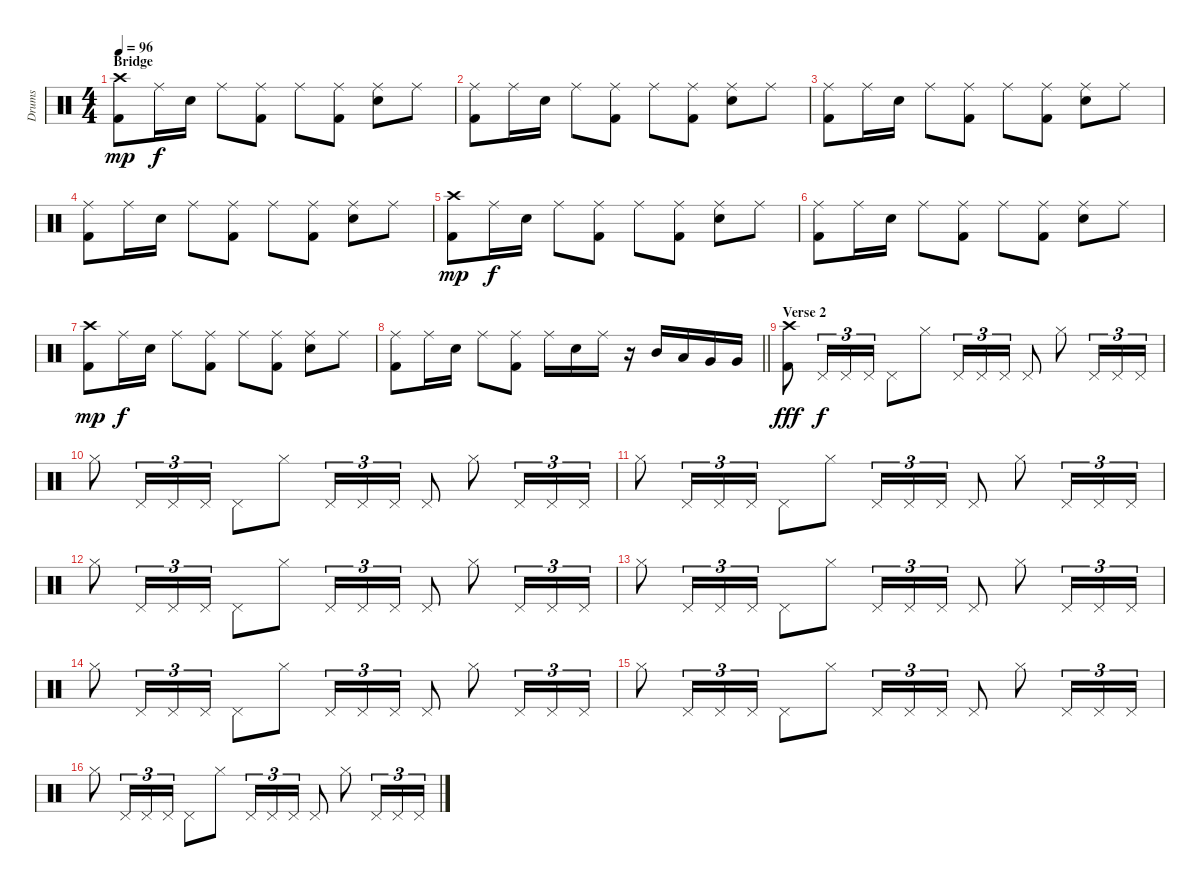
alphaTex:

\track ("Drums" "Drums") {instrument percussion}
\staff {score}
\articulation defaults
\ts (4 4)
\section ("" "Bridge")
\tempo 96
\clef neutral
\ks c
("Crash high (hit)" "Kick (hit) 2").8{dy mp} "Ride (middle)".16{dy f} "Snare (hit) 2".16 "Ride (middle)".8 ("Ride (middle)" "Kick (hit) 2").8 "Ride (middle)".8 ("Ride (middle)" "Kick (hit) 2").8 ("Ride (middle)" "Snare (hit) 2").8 "Ride (middle)".8 |
("Ride (middle)" "Kick (hit) 2").8 "Ride (middle)".16 "Snare (hit) 2".16 "Ride (middle)".8 ("Ride (middle)" "Kick (hit) 2").8 "Ride (middle)".8 ("Ride (middle)" "Kick (hit) 2").8 ("Ride (middle)" "Snare (hit) 2").8 "Ride (middle)".8 |
("Ride (middle)" "Kick (hit) 2").8 "Ride (middle)".16 "Snare (hit) 2".16 "Ride (middle)".8 ("Ride (middle)" "Kick (hit) 2").8 "Ride (middle)".8 ("Ride (middle)" "Kick (hit) 2").8 ("Ride (middle)" "Snare (hit) 2").8 "Ride (middle)".8 |
("Ride (middle)" "Kick (hit) 2").8 "Ride (middle)".16 "Snare (hit) 2".16 "Ride (middle)".8 ("Ride (middle)" "Kick (hit) 2").8 "Ride (middle)".8 ("Ride (middle)" "Kick (hit) 2").8 ("Ride (middle)" "Snare (hit) 2").8 "Ride (middle)".8 |
("Crash high (hit)" "Kick (hit) 2").8{dy mp} "Ride (middle)".16{dy f} "Snare (hit) 2".16 "Ride (middle)".8 ("Ride (middle)" "Kick (hit) 2").8 "Ride (middle)".8 ("Ride (middle)" "Kick (hit) 2").8 ("Ride (middle)" "Snare (hit) 2").8 "Ride (middle)".8 |
("Ride (middle)" "Kick (hit) 2").8 "Ride (middle)".16 "Snare (hit) 2".16 "Ride (middle)".8 ("Ride (middle)" "Kick (hit) 2").8 "Ride (middle)".8 ("Ride (middle)" "Kick (hit) 2").8 ("Ride (middle)" "Snare (hit) 2").8 "Ride (middle)".8 |
("Crash high (hit)" "Kick (hit) 2").8{dy mp} "Ride (middle)".16{dy f} "Snare (hit) 2".16 "Ride (middle)".8 ("Ride (middle)" "Kick (hit) 2").8 "Ride (middle)".8 ("Ride (middle)" "Kick (hit) 2").8 ("Ride (middle)" "Snare (hit) 2").8 "Ride (middle)".8 |
\barLineRight lightlight
("Ride (middle)" "Kick (hit) 2").8 "Ride (middle)".16 "Snare (hit) 2".16 "Ride (middle)".8 ("Ride (middle)" "Kick (hit) 2").8 "Ride (middle)".16 "Snare (hit) 2".16 "Ride (middle)".16 r.16 "Mid Tom (hit)".16 "Low Tom (hit)".16 "Very Low Tom (hit)".16 "Very Low Tom (hit)".16 |
\section ("" "Verse 2")
("Crash high (hit)" "Kick (hit) 2").8{dy fff} "Pedal Hi-Hat (hit)".16{tu (3 2) dy f} "Pedal Hi-Hat (hit)".16{tu (3 2)} "Pedal Hi-Hat (hit)".16{tu (3 2)} "Pedal Hi-Hat (hit)".8 "Hi-Hat (closed)".8 "Pedal Hi-Hat (hit)".16{tu (3 2)} "Pedal Hi-Hat (hit)".16{tu (3 2)} "Pedal Hi-Hat (hit)".16{tu (3 2)} "Pedal Hi-Hat (hit)".8 "Hi-Hat (closed)".8 "Pedal Hi-Hat (hit)".16{tu (3 2)} "Pedal Hi-Hat (hit)".16{tu (3 2)} "Pedal Hi-Hat (hit)".16{tu (3 2)} |
"Hi-Hat (closed)".8 "Pedal Hi-Hat (hit)".16{tu (3 2)} "Pedal Hi-Hat (hit)".16{tu (3 2)} "Pedal Hi-Hat (hit)".16{tu (3 2)} "Pedal Hi-Hat (hit)".8 "Hi-Hat (closed)".8 "Pedal Hi-Hat (hit)".16{tu (3 2)} "Pedal Hi-Hat (hit)".16{tu (3 2)} "Pedal Hi-Hat (hit)".16{tu (3 2)} "Pedal Hi-Hat (hit)".8 "Hi-Hat (closed)".8 "Pedal Hi-Hat (hit)".16{tu (3 2)} "Pedal Hi-Hat (hit)".16{tu (3 2)} "Pedal Hi-Hat (hit)".16{tu (3 2)} |
"Hi-Hat (closed)".8 "Pedal Hi-Hat (hit)".16{tu (3 2)} "Pedal Hi-Hat (hit)".16{tu (3 2)} "Pedal Hi-Hat (hit)".16{tu (3 2)} "Pedal Hi-Hat (hit)".8 "Hi-Hat (closed)".8 "Pedal Hi-Hat (hit)".16{tu (3 2)} "Pedal Hi-Hat (hit)".16{tu (3 2)} "Pedal Hi-Hat (hit)".16{tu (3 2)} "Pedal Hi-Hat (hit)".8 "Hi-Hat (closed)".8 "Pedal Hi-Hat (hit)".16{tu (3 2)} "Pedal Hi-Hat (hit)".16{tu (3 2)} "Pedal Hi-Hat (hit)".16{tu (3 2)} |
"Hi-Hat (closed)".8 "Pedal Hi-Hat (hit)".16{tu (3 2)} "Pedal Hi-Hat (hit)".16{tu (3 2)} "Pedal Hi-Hat (hit)".16{tu (3 2)} "Pedal Hi-Hat (hit)".8 "Hi-Hat (closed)".8 "Pedal Hi-Hat (hit)".16{tu (3 2)} "Pedal Hi-Hat (hit)".16{tu (3 2)} "Pedal Hi-Hat (hit)".16{tu (3 2)} "Pedal Hi-Hat (hit)".8 "Hi-Hat (closed)".8 "Pedal Hi-Hat (hit)".16{tu (3 2)} "Pedal Hi-Hat (hit)".16{tu (3 2)} "Pedal Hi-Hat (hit)".16{tu (3 2)} |
"Hi-Hat (closed)".8 "Pedal Hi-Hat (hit)".16{tu (3 2)} "Pedal Hi-Hat (hit)".16{tu (3 2)} "Pedal Hi-Hat (hit)".16{tu (3 2)} "Pedal Hi-Hat (hit)".8 "Hi-Hat (closed)".8 "Pedal Hi-Hat (hit)".16{tu (3 2)} "Pedal Hi-Hat (hit)".16{tu (3 2)} "Pedal Hi-Hat (hit)".16{tu (3 2)} "Pedal Hi-Hat (hit)".8 "Hi-Hat (closed)".8 "Pedal Hi-Hat (hit)".16{tu (3 2)} "Pedal Hi-Hat (hit)".16{tu (3 2)} "Pedal Hi-Hat (hit)".16{tu (3 2)} |
"Hi-Hat (closed)".8 "Pedal Hi-Hat (hit)".16{tu (3 2)} "Pedal Hi-Hat (hit)".16{tu (3 2)} "Pedal Hi-Hat (hit)".16{tu (3 2)} "Pedal Hi-Hat (hit)".8 "Hi-Hat (closed)".8 "Pedal Hi-Hat (hit)".16{tu (3 2)} "Pedal Hi-Hat (hit)".16{tu (3 2)} "Pedal Hi-Hat (hit)".16{tu (3 2)} "Pedal Hi-Hat (hit)".8 "Hi-Hat (closed)".8 "Pedal Hi-Hat (hit)".16{tu (3 2)} "Pedal Hi-Hat (hit)".16{tu (3 2)} "Pedal Hi-Hat (hit)".16{tu (3 2)} |
"Hi-Hat (closed)".8 "Pedal Hi-Hat (hit)".16{tu (3 2)} "Pedal Hi-Hat (hit)".16{tu (3 2)} "Pedal Hi-Hat (hit)".16{tu (3 2)} "Pedal Hi-Hat (hit)".8 "Hi-Hat (closed)".8 "Pedal Hi-Hat (hit)".16{tu (3 2)} "Pedal Hi-Hat (hit)".16{tu (3 2)} "Pedal Hi-Hat (hit)".16{tu (3 2)} "Pedal Hi-Hat (hit)".8 "Hi-Hat (closed)".8 "Pedal Hi-Hat (hit)".16{tu (3 2)} "Pedal Hi-Hat (hit)".16{tu (3 2)} "Pedal Hi-Hat (hit)".16{tu (3 2)} |
"Hi-Hat (closed)".8 "Pedal Hi-Hat (hit)".16{tu (3 2)} "Pedal Hi-Hat (hit)".16{tu (3 2)} "Pedal Hi-Hat (hit)".16{tu (3 2)} "Pedal Hi-Hat (hit)".8 "Hi-Hat (closed)".8 "Pedal Hi-Hat (hit)".16{tu (3 2)} "Pedal Hi-Hat (hit)".16{tu (3 2)} "Pedal Hi-Hat (hit)".16{tu (3 2)} "Pedal Hi-Hat (hit)".8 "Hi-Hat (closed)".8 "Pedal Hi-Hat (hit)".16{tu (3 2)} "Pedal Hi-Hat (hit)".16{tu (3 2)} "Pedal Hi-Hat (hit)".16{tu (3 2)}
